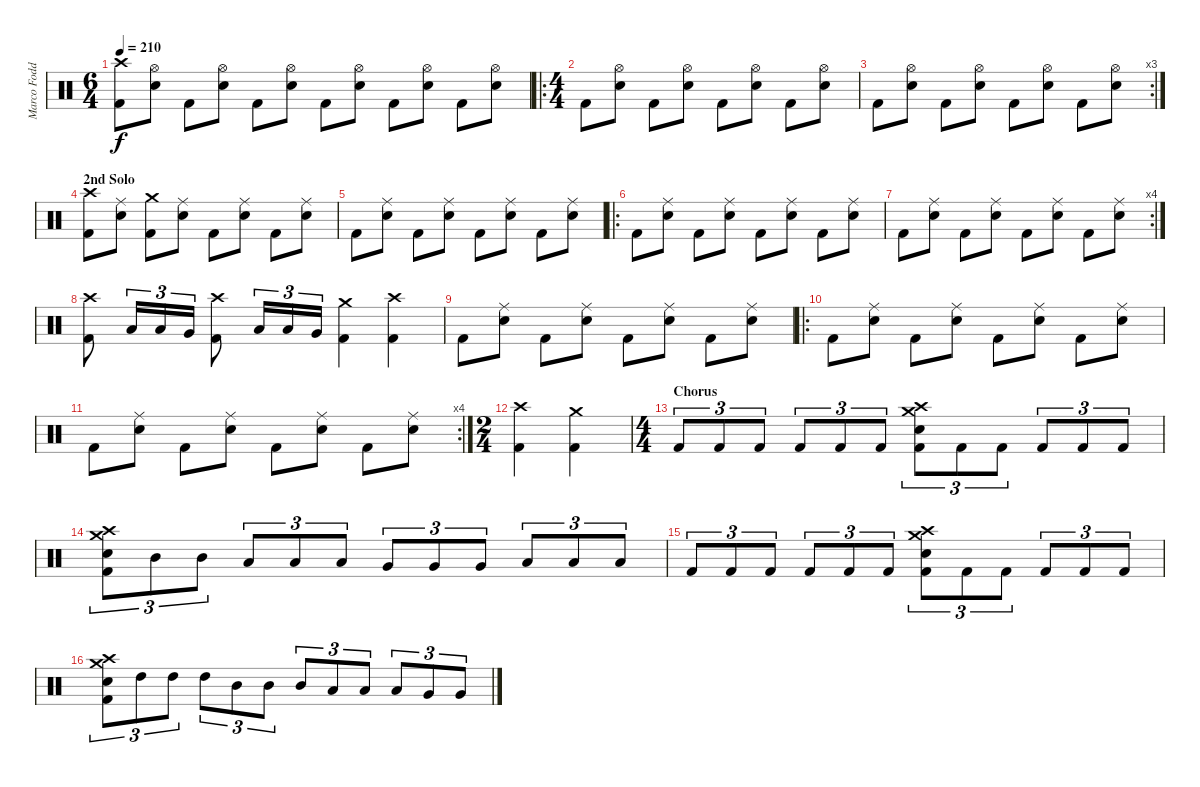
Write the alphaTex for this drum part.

\track ("Marco Foddis " "Marco Fodd") {instrument percussion}
\staff {score}
\articulation defaults
\ts (6 4)
\tempo 210
\clef neutral
\ks c
("Crash high (hit)" "Kick (hit) 2").8{dy f} ("Hi-Hat (open)" "Electric Snare (hit)").8 "Kick (hit) 2".8 ("Hi-Hat (open)" "Electric Snare (hit)").8 "Kick (hit) 2".8 ("Hi-Hat (open)" "Electric Snare (hit)").8 "Kick (hit) 2".8 ("Hi-Hat (open)" "Electric Snare (hit)").8 "Kick (hit) 2".8 ("Hi-Hat (open)" "Electric Snare (hit)").8 "Kick (hit) 2".8 ("Hi-Hat (open)" "Electric Snare (hit)").8 |
\ro
\ts (4 4)
"Kick (hit) 2".8 ("Hi-Hat (open)" "Electric Snare (hit)").8 "Kick (hit) 2".8 ("Hi-Hat (open)" "Electric Snare (hit)").8 "Kick (hit) 2".8 ("Hi-Hat (open)" "Electric Snare (hit)").8 "Kick (hit) 2".8 ("Hi-Hat (open)" "Electric Snare (hit)").8 |
\rc 3 "Kick (hit) 2".8
("Hi-Hat (open)" "Electric Snare (hit)").8 "Kick (hit) 2".8 ("Hi-Hat (open)" "Electric Snare (hit)").8 "Kick (hit) 2".8 ("Hi-Hat (open)" "Electric Snare (hit)").8 "Kick (hit) 2".8 ("Hi-Hat (open)" "Electric Snare (hit)").8 |
\section ("" "2nd Solo")
("Crash high (hit)" "Kick (hit) 2").8 ("Ride (middle)" "Electric Snare (hit)").8 ("Crash medium (hit)" "Kick (hit) 2").8 ("Ride (middle)" "Electric Snare (hit)").8 "Kick (hit) 2".8 ("Ride (middle)" "Electric Snare (hit)").8 "Kick (hit) 2".8 ("Ride (middle)" "Electric Snare (hit)").8 |
"Kick (hit) 2".8 ("Ride (middle)" "Electric Snare (hit)").8 "Kick (hit) 2".8 ("Ride (middle)" "Electric Snare (hit)").8 "Kick (hit) 2".8 ("Ride (middle)" "Electric Snare (hit)").8 "Kick (hit) 2".8 ("Ride (middle)" "Electric Snare (hit)").8 |
\ro "Kick (hit) 2".8
("Ride (middle)" "Electric Snare (hit)").8 "Kick (hit) 2".8 ("Ride (middle)" "Electric Snare (hit)").8 "Kick (hit) 2".8 ("Ride (middle)" "Electric Snare (hit)").8 "Kick (hit) 2".8 ("Ride (middle)" "Electric Snare (hit)").8 |
\rc 4 "Kick (hit) 2".8
("Ride (middle)" "Electric Snare (hit)").8 "Kick (hit) 2".8 ("Ride (middle)" "Electric Snare (hit)").8 "Kick (hit) 2".8 ("Ride (middle)" "Electric Snare (hit)").8 "Kick (hit) 2".8 ("Ride (middle)" "Electric Snare (hit)").8 |
("Crash high (hit)" "Kick (hit) 2").8 "Low Tom (hit)".16{tu (3 2)} "Low Tom (hit)".16{tu (3 2)} "Very Low Tom (hit)".16{tu (3 2)} ("Crash high (hit)" "Kick (hit) 2").8 "Low Tom (hit)".16{tu (3 2)} "Low Tom (hit)".16{tu (3 2)} "Very Low Tom (hit)".16{tu (3 2)} ("Crash medium (hit)" "Kick (hit) 2").4 ("Crash high (hit)" "Kick (hit) 2").4 |
"Kick (hit) 2".8 ("Ride (middle)" "Electric Snare (hit)").8 "Kick (hit) 2".8 ("Ride (middle)" "Electric Snare (hit)").8 "Kick (hit) 2".8 ("Ride (middle)" "Electric Snare (hit)").8 "Kick (hit) 2".8 ("Ride (middle)" "Electric Snare (hit)").8 |
\ro "Kick (hit) 2".8
("Ride (middle)" "Electric Snare (hit)").8 "Kick (hit) 2".8 ("Ride (middle)" "Electric Snare (hit)").8 "Kick (hit) 2".8 ("Ride (middle)" "Electric Snare (hit)").8 "Kick (hit) 2".8 ("Ride (middle)" "Electric Snare (hit)").8 |
\rc 4 "Kick (hit) 2".8
("Ride (middle)" "Electric Snare (hit)").8 "Kick (hit) 2".8 ("Ride (middle)" "Electric Snare (hit)").8 "Kick (hit) 2".8 ("Ride (middle)" "Electric Snare (hit)").8 "Kick (hit) 2".8 ("Ride (middle)" "Electric Snare (hit)").8 |
\ts (2 4)
("Crash high (hit)" "Kick (hit) 2").4 ("Crash medium (hit)" "Kick (hit) 2").4 |
\ts (4 4)
\section ("" "Chorus")
"Kick (hit) 2".8{tu (3 2)} "Kick (hit) 2".8{tu (3 2)} "Kick (hit) 2".8{tu (3 2)} "Kick (hit) 2".8{tu (3 2)} "Kick (hit) 2".8{tu (3 2)} "Kick (hit) 2".8{tu (3 2)} ("Crash high (hit)" "Crash medium (hit)" "Electric Snare (hit)" "Kick (hit) 2").8{tu (3 2)} "Kick (hit) 2".8{tu (3 2)} "Kick (hit) 2".8{tu (3 2)} "Kick (hit) 2".8{tu (3 2)} "Kick (hit) 2".8{tu (3 2)} "Kick (hit) 2".8{tu (3 2)} |
("Crash high (hit)" "Crash medium (hit)" "Electric Snare (hit)" "Kick (hit) 2").8{tu (3 2)} "Mid Tom (hit)".8{tu (3 2)} "Mid Tom (hit)".8{tu (3 2)} "Low Tom (hit)".8{tu (3 2)} "Low Tom (hit)".8{tu (3 2)} "Low Tom (hit)".8{tu (3 2)} "Very Low Tom (hit)".8{tu (3 2)} "Very Low Tom (hit)".8{tu (3 2)} "Very Low Tom (hit)".8{tu (3 2)} "Low Floor Tom (hit)".8{tu (3 2)} "Low Floor Tom (hit)".8{tu (3 2)} "Low Floor Tom (hit)".8{tu (3 2)} |
"Kick (hit) 2".8{tu (3 2)} "Kick (hit) 2".8{tu (3 2)} "Kick (hit) 2".8{tu (3 2)} "Kick (hit) 2".8{tu (3 2)} "Kick (hit) 2".8{tu (3 2)} "Kick (hit) 2".8{tu (3 2)} ("Crash high (hit)" "Crash medium (hit)" "Electric Snare (hit)" "Kick (hit) 2").8{tu (3 2)} "Kick (hit) 2".8{tu (3 2)} "Kick (hit) 2".8{tu (3 2)} "Kick (hit) 2".8{tu (3 2)} "Kick (hit) 2".8{tu (3 2)} "Kick (hit) 2".8{tu (3 2)} |
("Crash high (hit)" "Crash medium (hit)" "Electric Snare (hit)" "Kick (hit) 2").8{tu (3 2)} "High Tom (hit)".8{tu (3 2)} "High Tom (hit)".8{tu (3 2)} "High Tom (hit)".8{tu (3 2)} "Mid Tom (hit)".8{tu (3 2)} "Mid Tom (hit)".8{tu (3 2)} "Mid Tom (hit)".8{tu (3 2)} "Low Tom (hit)".8{tu (3 2)} "Low Tom (hit)".8{tu (3 2)} "Low Tom (hit)".8{tu (3 2)} "Very Low Tom (hit)".8{tu (3 2)} "Very Low Tom (hit)".8{tu (3 2)}
